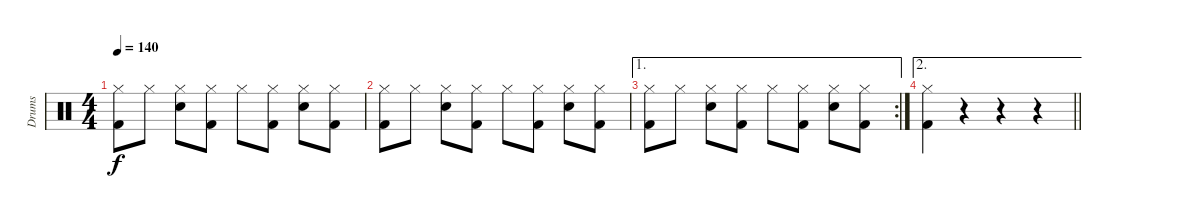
\track ("Drums" "Drums") {instrument percussion}
\staff {score}
\articulation defaults
\ts (4 4)
\tempo 140
\clef neutral
\ks c
("Hi-Hat (closed)" "Kick (hit) 2").8{dy f} "Hi-Hat (closed)".8 ("Hi-Hat (closed)" "Snare (hit) 2").8 ("Hi-Hat (closed)" "Kick (hit) 2").8 "Hi-Hat (closed)".8 ("Hi-Hat (closed)" "Kick (hit) 2").8 ("Hi-Hat (closed)" "Snare (hit) 2").8 ("Hi-Hat (closed)" "Kick (hit) 2").8 |
("Hi-Hat (closed)" "Kick (hit) 2").8 "Hi-Hat (closed)".8 ("Hi-Hat (closed)" "Snare (hit) 2").8 ("Hi-Hat (closed)" "Kick (hit) 2").8 "Hi-Hat (closed)".8 ("Hi-Hat (closed)" "Kick (hit) 2").8 ("Hi-Hat (closed)" "Snare (hit) 2").8 ("Hi-Hat (closed)" "Kick (hit) 2").8 |
\ae 1
\rc 2
("Hi-Hat (closed)" "Kick (hit) 2").8 "Hi-Hat (closed)".8 ("Hi-Hat (closed)" "Snare (hit) 2").8 ("Hi-Hat (closed)" "Kick (hit) 2").8 "Hi-Hat (closed)".8 ("Hi-Hat (closed)" "Kick (hit) 2").8 ("Hi-Hat (closed)" "Snare (hit) 2").8 ("Hi-Hat (closed)" "Kick (hit) 2").8 |
\ae 2
\barLineRight lightlight
("Hi-Hat (closed)" "Kick (hit) 2").4 r.4 r.4 r.4
